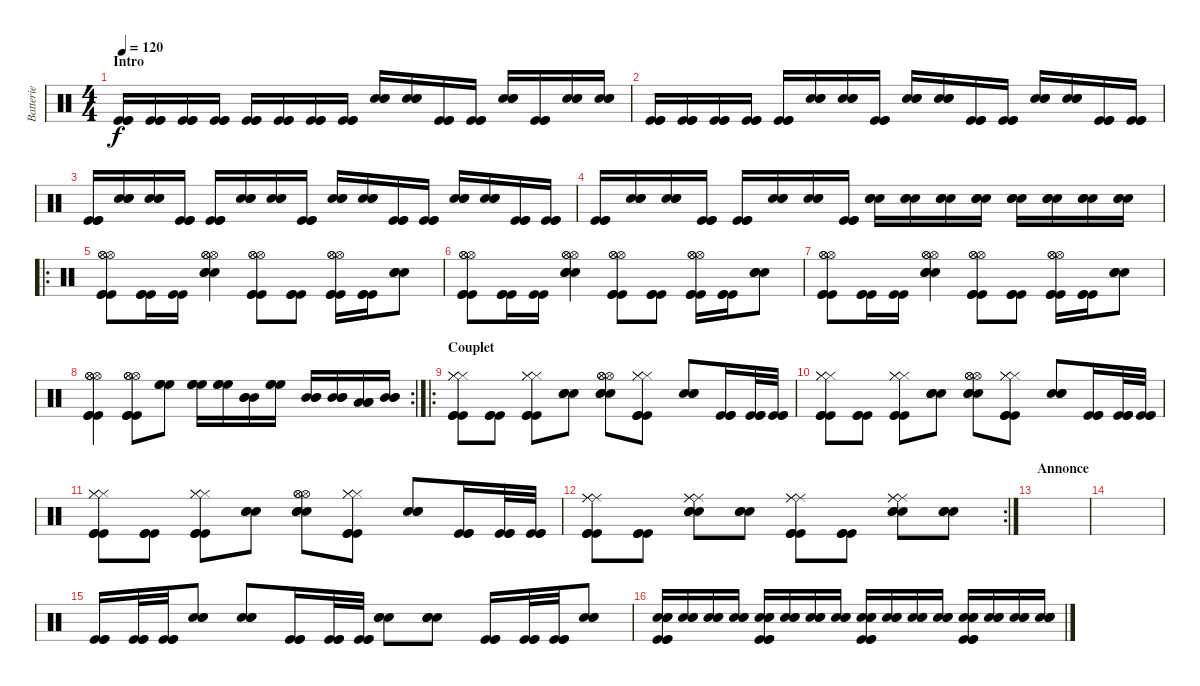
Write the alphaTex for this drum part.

\track ("Batterie" "Batterie") {instrument percussion}
\staff {score}
\articulation defaults
\ts (4 4)
\section ("" "Intro")
\tempo 120
\clef neutral
\ks c
("Kick (hit)" "Kick (hit)" "Kick (hit)").16{dy f} ("Kick (hit)" "Kick (hit)" "Kick (hit)").16 ("Kick (hit)" "Kick (hit)" "Kick (hit)").16 ("Kick (hit)" "Kick (hit)" "Kick (hit)").16 ("Kick (hit)" "Kick (hit)" "Kick (hit)").16 ("Kick (hit)" "Kick (hit)" "Kick (hit)").16 ("Kick (hit)" "Kick (hit)" "Kick (hit)").16 ("Kick (hit)" "Kick (hit)" "Kick (hit)").16 ("Snare (hit) 2" "Snare (hit) 2" "Snare (hit) 2").16 ("Snare (hit) 2" "Snare (hit) 2" "Snare (hit) 2").16 ("Kick (hit)" "Kick (hit)" "Kick (hit)").16 ("Kick (hit)" "Kick (hit)" "Kick (hit)").16 ("Snare (hit) 2" "Snare (hit) 2" "Snare (hit) 2").16 ("Kick (hit)" "Kick (hit)" "Kick (hit)").16 ("Snare (hit) 2" "Snare (hit) 2" "Snare (hit) 2").16 ("Snare (hit) 2" "Snare (hit) 2" "Snare (hit) 2").16 |
("Kick (hit)" "Kick (hit)" "Kick (hit)").16 ("Kick (hit)" "Kick (hit)" "Kick (hit)").16 ("Kick (hit)" "Kick (hit)" "Kick (hit)").16 ("Kick (hit)" "Kick (hit)" "Kick (hit)").16 ("Kick (hit)" "Kick (hit)" "Kick (hit)").16 ("Snare (hit) 2" "Snare (hit) 2" "Snare (hit) 2").16 ("Snare (hit) 2" "Snare (hit) 2" "Snare (hit) 2").16 ("Kick (hit)" "Kick (hit)" "Kick (hit)").16 ("Snare (hit) 2" "Snare (hit) 2" "Snare (hit) 2").16 ("Snare (hit) 2" "Snare (hit) 2" "Snare (hit) 2").16 ("Kick (hit)" "Kick (hit)" "Kick (hit)").16 ("Kick (hit)" "Kick (hit)" "Kick (hit)").16 ("Snare (hit) 2" "Snare (hit) 2" "Snare (hit) 2").16 ("Snare (hit) 2" "Snare (hit) 2" "Snare (hit) 2").16 ("Kick (hit)" "Kick (hit)" "Kick (hit)").16 ("Kick (hit)" "Kick (hit)" "Kick (hit)").16 |
("Kick (hit)" "Kick (hit)" "Kick (hit)").16 ("Snare (hit) 2" "Snare (hit) 2" "Snare (hit) 2").16 ("Snare (hit) 2" "Snare (hit) 2" "Snare (hit) 2").16 ("Kick (hit)" "Kick (hit)" "Kick (hit)").16 ("Kick (hit)" "Kick (hit)" "Kick (hit)").16 ("Snare (hit) 2" "Snare (hit) 2" "Snare (hit) 2").16 ("Snare (hit) 2" "Snare (hit) 2" "Snare (hit) 2").16 ("Kick (hit)" "Kick (hit)" "Kick (hit)").16 ("Snare (hit) 2" "Snare (hit) 2" "Snare (hit) 2").16 ("Snare (hit) 2" "Snare (hit) 2" "Snare (hit) 2").16 ("Kick (hit)" "Kick (hit)" "Kick (hit)").16 ("Kick (hit)" "Kick (hit)" "Kick (hit)").16 ("Snare (hit) 2" "Snare (hit) 2" "Snare (hit) 2").16 ("Snare (hit) 2" "Snare (hit) 2" "Snare (hit) 2").16 ("Kick (hit)" "Kick (hit)" "Kick (hit)").16 ("Kick (hit)" "Kick (hit)" "Kick (hit)").16 |
("Kick (hit)" "Kick (hit)" "Kick (hit)").16 ("Snare (hit) 2" "Snare (hit) 2" "Snare (hit) 2").16 ("Snare (hit) 2" "Snare (hit) 2" "Snare (hit) 2").16 ("Kick (hit)" "Kick (hit)" "Kick (hit)").16 ("Kick (hit)" "Kick (hit)" "Kick (hit)").16 ("Snare (hit) 2" "Snare (hit) 2" "Snare (hit) 2").16 ("Snare (hit) 2" "Snare (hit) 2" "Snare (hit) 2").16 ("Kick (hit)" "Kick (hit)" "Kick (hit)").16 ("Snare (hit) 2" "Snare (hit) 2" "Snare (hit) 2").16 ("Snare (hit) 2" "Snare (hit) 2" "Snare (hit) 2").16 ("Snare (hit) 2" "Snare (hit) 2" "Snare (hit) 2").16 ("Snare (hit) 2" "Snare (hit) 2" "Snare (hit) 2").16 ("Snare (hit) 2" "Snare (hit) 2" "Snare (hit) 2").16 ("Snare (hit) 2" "Snare (hit) 2" "Snare (hit) 2").16 ("Snare (hit) 2" "Snare (hit) 2" "Snare (hit) 2").16 ("Snare (hit) 2" "Snare (hit) 2" "Snare (hit) 2").16 |
\ro
("Kick (hit)" "Kick (hit)" "Kick (hit)" "Hi-Hat (open)" "Hi-Hat (open)" "Hi-Hat (open)").8 ("Kick (hit)" "Kick (hit)" "Kick (hit)").16 ("Kick (hit)" "Kick (hit)").16 ("Hi-Hat (open)" "Snare (hit) 2" "Snare (hit) 2" "Snare (hit) 2" "Hi-Hat (open)" "Hi-Hat (open)").4 ("Hi-Hat (open)" "Hi-Hat (open)" "Hi-Hat (open)" "Kick (hit)" "Kick (hit)" "Kick (hit)").8 ("Kick (hit)" "Kick (hit)" "Kick (hit)").8 ("Kick (hit)" "Kick (hit)" "Kick (hit)" "Hi-Hat (open)" "Hi-Hat (open)" "Hi-Hat (open)").16 ("Kick (hit)" "Kick (hit)" "Kick (hit)").16 ("Snare (hit) 2" "Snare (hit) 2" "Snare (hit) 2").8 |
("Kick (hit)" "Kick (hit)" "Kick (hit)" "Hi-Hat (open)" "Hi-Hat (open)" "Hi-Hat (open)").8 ("Kick (hit)" "Kick (hit)" "Kick (hit)").16 ("Kick (hit)" "Kick (hit)").16 ("Hi-Hat (open)" "Snare (hit) 2" "Snare (hit) 2" "Snare (hit) 2" "Hi-Hat (open)" "Hi-Hat (open)").4 ("Hi-Hat (open)" "Hi-Hat (open)" "Hi-Hat (open)" "Kick (hit)" "Kick (hit)" "Kick (hit)").8 ("Kick (hit)" "Kick (hit)" "Kick (hit)").8 ("Kick (hit)" "Kick (hit)" "Kick (hit)" "Hi-Hat (open)" "Hi-Hat (open)" "Hi-Hat (open)").16 ("Kick (hit)" "Kick (hit)" "Kick (hit)").16 ("Snare (hit) 2" "Snare (hit) 2" "Snare (hit) 2").8 |
("Kick (hit)" "Kick (hit)" "Kick (hit)" "Hi-Hat (open)" "Hi-Hat (open)" "Hi-Hat (open)").8 ("Kick (hit)" "Kick (hit)" "Kick (hit)").16 ("Kick (hit)" "Kick (hit)").16 ("Hi-Hat (open)" "Snare (hit) 2" "Snare (hit) 2" "Snare (hit) 2" "Hi-Hat (open)" "Hi-Hat (open)").4 ("Hi-Hat (open)" "Hi-Hat (open)" "Hi-Hat (open)" "Kick (hit)" "Kick (hit)" "Kick (hit)").8 ("Kick (hit)" "Kick (hit)" "Kick (hit)").8 ("Kick (hit)" "Kick (hit)" "Kick (hit)" "Hi-Hat (open)" "Hi-Hat (open)" "Hi-Hat (open)").16 ("Kick (hit)" "Kick (hit)" "Kick (hit)").16 ("Snare (hit) 2" "Snare (hit) 2" "Snare (hit) 2").8 |
\rc 2
("Hi-Hat (open)" "Hi-Hat (open)" "Hi-Hat (open)" "Kick (hit)" "Kick (hit)" "Kick (hit)").4 ("Kick (hit)" "Kick (hit)" "Kick (hit)" "Hi-Hat (open)" "Hi-Hat (open)" "Hi-Hat (open)").8 ("High Floor Tom (hit)" "High Floor Tom (hit)" "High Floor Tom (hit)").8 ("High Floor Tom (hit)" "High Floor Tom (hit)" "High Floor Tom (hit)").16 ("High Floor Tom (hit)" "High Floor Tom (hit)" "High Floor Tom (hit)").16 ("Mid Tom (hit)" "Mid Tom (hit)" "Mid Tom (hit)").16 ("High Floor Tom (hit)" "High Floor Tom (hit)" "High Floor Tom (hit)").16 ("Mid Tom (hit)" "Mid Tom (hit)" "Mid Tom (hit)").16 ("Mid Tom (hit)" "Mid Tom (hit)" "Mid Tom (hit)").16 ("Low Tom (hit)" "Low Tom (hit)" "Low Tom (hit)").16 ("Mid Tom (hit)" "Mid Tom (hit)" "Mid Tom (hit)").16 |
\ro
\section ("" "Couplet")
("Hi-Hat (closed)" "Hi-Hat (closed)" "Hi-Hat (closed)" "Kick (hit)" "Kick (hit)" "Kick (hit)").8 ("Kick (hit)" "Kick (hit)" "Kick (hit)").8 ("Hi-Hat (closed)" "Hi-Hat (closed)" "Hi-Hat (closed)" "Kick (hit)" "Kick (hit)" "Kick (hit)").8 ("Snare (hit) 2" "Snare (hit) 2" "Snare (hit) 2").8 ("Hi-Hat (open)" "Hi-Hat (open)" "Hi-Hat (open)" "Snare (hit) 2" "Snare (hit) 2" "Snare (hit) 2").8 ("Hi-Hat (closed)" "Hi-Hat (closed)" "Kick (hit)" "Kick (hit)" "Kick (hit)" "Hi-Hat (closed)").8 ("Snare (hit) 2" "Snare (hit) 2" "Snare (hit) 2").8 ("Kick (hit)" "Kick (hit)" "Kick (hit)").16 ("Kick (hit)" "Kick (hit)" "Kick (hit)").32 ("Kick (hit)" "Kick (hit)" "Kick (hit)").32 |
("Hi-Hat (closed)" "Hi-Hat (closed)" "Hi-Hat (closed)" "Kick (hit)" "Kick (hit)" "Kick (hit)").8 ("Kick (hit)" "Kick (hit)" "Kick (hit)").8 ("Hi-Hat (closed)" "Hi-Hat (closed)" "Hi-Hat (closed)" "Kick (hit)" "Kick (hit)" "Kick (hit)").8 ("Snare (hit) 2" "Snare (hit) 2" "Snare (hit) 2").8 ("Hi-Hat (open)" "Hi-Hat (open)" "Hi-Hat (open)" "Snare (hit) 2" "Snare (hit) 2" "Snare (hit) 2").8 ("Hi-Hat (closed)" "Hi-Hat (closed)" "Kick (hit)" "Kick (hit)" "Kick (hit)" "Hi-Hat (closed)").8 ("Snare (hit) 2" "Snare (hit) 2" "Snare (hit) 2").8 ("Kick (hit)" "Kick (hit)" "Kick (hit)").16 ("Kick (hit)" "Kick (hit)" "Kick (hit)").32 ("Kick (hit)" "Kick (hit)" "Kick (hit)").32 |
("Hi-Hat (closed)" "Hi-Hat (closed)" "Hi-Hat (closed)" "Kick (hit)" "Kick (hit)" "Kick (hit)").8 ("Kick (hit)" "Kick (hit)" "Kick (hit)").8 ("Hi-Hat (closed)" "Hi-Hat (closed)" "Hi-Hat (closed)" "Kick (hit)" "Kick (hit)" "Kick (hit)").8 ("Snare (hit) 2" "Snare (hit) 2" "Snare (hit) 2").8 ("Hi-Hat (open)" "Hi-Hat (open)" "Hi-Hat (open)" "Snare (hit) 2" "Snare (hit) 2" "Snare (hit) 2").8 ("Hi-Hat (closed)" "Hi-Hat (closed)" "Kick (hit)" "Kick (hit)" "Kick (hit)" "Hi-Hat (closed)").8 ("Snare (hit) 2" "Snare (hit) 2" "Snare (hit) 2").8 ("Kick (hit)" "Kick (hit)" "Kick (hit)").16 ("Kick (hit)" "Kick (hit)" "Kick (hit)").32 ("Kick (hit)" "Kick (hit)" "Kick (hit)").32 |
\rc 2
("Ride (middle)" "Ride (middle)" "Ride (middle)" "Kick (hit)" "Kick (hit)" "Kick (hit)").8 ("Kick (hit)" "Kick (hit)" "Kick (hit)").8 ("Ride (middle)" "Ride (middle)" "Ride (middle)" "Snare (hit) 2" "Snare (hit) 2" "Snare (hit) 2").8 ("Snare (hit) 2" "Snare (hit) 2" "Snare (hit) 2").8 ("Kick (hit)" "Kick (hit)" "Ride (middle)" "Ride (middle)" "Ride (middle)" "Kick (hit)").8 ("Kick (hit)" "Kick (hit)" "Kick (hit)").8 ("Snare (hit) 2" "Snare (hit) 2" "Snare (hit) 2" "Ride (middle)" "Ride (middle)" "Ride (middle)").8 ("Snare (hit) 2" "Snare (hit) 2" "Snare (hit) 2").8 |
\section ("" "Annonce")
|
|
("Kick (hit)" "Kick (hit)" "Kick (hit)").16 ("Kick (hit)" "Kick (hit)" "Kick (hit)").32 ("Kick (hit)" "Kick (hit)" "Kick (hit)").32 ("Snare (hit) 2" "Snare (hit) 2" "Snare (hit) 2").8 ("Snare (hit) 2" "Snare (hit) 2" "Snare (hit) 2").8 ("Kick (hit)" "Kick (hit)" "Kick (hit)").16 ("Kick (hit)" "Kick (hit)" "Kick (hit)").32 ("Kick (hit)" "Kick (hit)" "Kick (hit)").32 ("Snare (hit) 2" "Snare (hit) 2" "Snare (hit) 2").8 ("Snare (hit) 2" "Snare (hit) 2" "Snare (hit) 2").8 ("Kick (hit)" "Kick (hit)" "Kick (hit)").16 ("Kick (hit)" "Kick (hit)" "Kick (hit)").32 ("Kick (hit)" "Kick (hit)" "Kick (hit)").32 ("Snare (hit) 2" "Snare (hit) 2" "Snare (hit) 2").8 |
("Kick (hit)" "Kick (hit)" "Kick (hit)" "Snare (hit) 2" "Snare (hit) 2" "Snare (hit) 2").16 ("Snare (hit) 2" "Snare (hit) 2" "Snare (hit) 2").16 ("Snare (hit) 2" "Snare (hit) 2" "Snare (hit) 2").16 ("Snare (hit) 2" "Snare (hit) 2" "Snare (hit) 2").16 ("Snare (hit) 2" "Snare (hit) 2" "Kick (hit)" "Kick (hit)" "Kick (hit)" "Snare (hit) 2").16 ("Snare (hit) 2" "Snare (hit) 2" "Snare (hit) 2").16 ("Snare (hit) 2" "Snare (hit) 2" "Snare (hit) 2").16 ("Snare (hit) 2" "Snare (hit) 2" "Snare (hit) 2").16 ("Snare (hit) 2" "Snare (hit) 2" "Snare (hit) 2" "Kick (hit)" "Kick (hit)" "Kick (hit)").16 ("Snare (hit) 2" "Snare (hit) 2" "Snare (hit) 2").16 ("Snare (hit) 2" "Snare (hit) 2" "Snare (hit) 2").16 ("Snare (hit) 2" "Snare (hit) 2" "Snare (hit) 2").16 ("Kick (hit)" "Kick (hit)" "Kick (hit)" "Snare (hit) 2" "Snare (hit) 2" "Snare (hit) 2").16 ("Snare (hit) 2" "Snare (hit) 2" "Snare (hit) 2").16 ("Snare (hit) 2" "Snare (hit) 2" "Snare (hit) 2").16 ("Snare (hit) 2" "Snare (hit) 2" "Snare (hit) 2" "Snare (hit) 2").16
